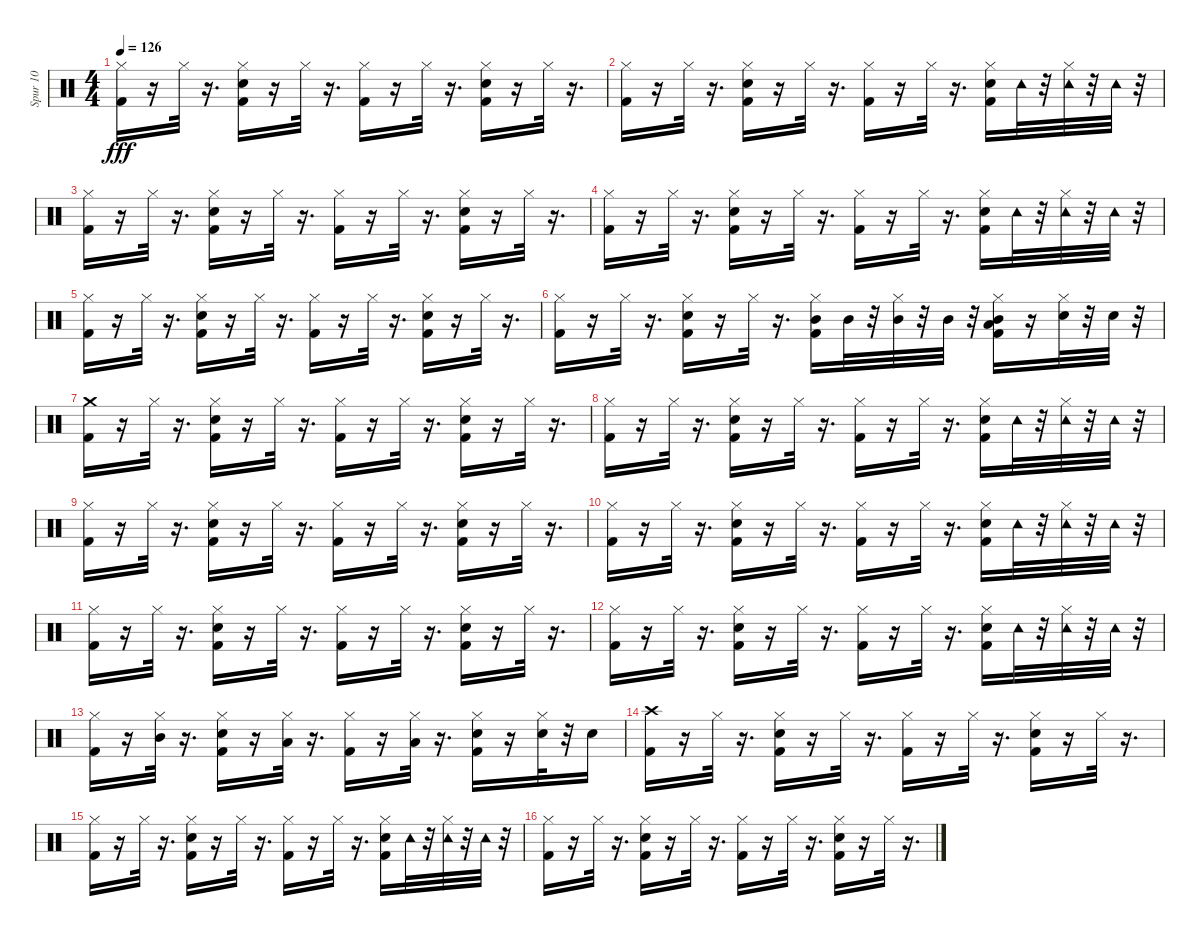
\track ("Spur 10" "Spur 10") {instrument percussion}
\staff {score}
\articulation defaults
\ts (4 4)
\tempo 126
\clef neutral
\ks c
("Hi-Hat (closed)" "Kick (hit) 2").16{dy fff} r.16 "Hi-Hat (closed)".32 r.16{d} ("Hi-Hat (closed)" "Kick (hit) 2" "Snare (hit) 2").16 r.16 "Hi-Hat (closed)".32 r.16{d} ("Hi-Hat (closed)" "Kick (hit) 2").16 r.16 "Hi-Hat (closed)".32 r.16{d} ("Hi-Hat (closed)" "Snare (hit) 2" "Kick (hit) 2").16 r.16 "Hi-Hat (closed)".32 r.16{d} |
("Hi-Hat (closed)" "Kick (hit) 2").16 r.16 "Hi-Hat (closed)".32 r.16{d} ("Hi-Hat (closed)" "Snare (hit) 2" "Kick (hit) 2").16 r.16 "Hi-Hat (closed)".32 r.16{d} ("Hi-Hat (closed)" "Kick (hit) 2").16 r.16 "Hi-Hat (closed)".32 r.16{d} ("Hi-Hat (closed)" "Snare (hit) 2" "Kick (hit) 2").16 "Tambourine (hit)".32 r.32 ("Hi-Hat (closed)" "Tambourine (hit)").32 r.32 "Tambourine (hit)".32 r.32 |
("Hi-Hat (closed)" "Kick (hit) 2").16 r.16 "Hi-Hat (closed)".32 r.16{d} ("Hi-Hat (closed)" "Kick (hit) 2" "Snare (hit) 2").16 r.16 "Hi-Hat (closed)".32 r.16{d} ("Hi-Hat (closed)" "Kick (hit) 2").16 r.16 "Hi-Hat (closed)".32 r.16{d} ("Hi-Hat (closed)" "Snare (hit) 2" "Kick (hit) 2").16 r.16 "Hi-Hat (closed)".32 r.16{d} |
("Hi-Hat (closed)" "Kick (hit) 2").16 r.16 "Hi-Hat (closed)".32 r.16{d} ("Hi-Hat (closed)" "Snare (hit) 2" "Kick (hit) 2").16 r.16 "Hi-Hat (closed)".32 r.16{d} ("Hi-Hat (closed)" "Kick (hit) 2").16 r.16 "Hi-Hat (closed)".32 r.16{d} ("Hi-Hat (closed)" "Snare (hit) 2" "Kick (hit) 2").16 "Tambourine (hit)".32 r.32 ("Hi-Hat (closed)" "Tambourine (hit)").32 r.32 "Tambourine (hit)".32 r.32 |
("Hi-Hat (closed)" "Kick (hit) 2").16 r.16 "Hi-Hat (closed)".32 r.16{d} ("Hi-Hat (closed)" "Kick (hit) 2" "Snare (hit) 2").16 r.16 "Hi-Hat (closed)".32 r.16{d} ("Hi-Hat (closed)" "Kick (hit) 2").16 r.16 "Hi-Hat (closed)".32 r.16{d} ("Hi-Hat (closed)" "Snare (hit) 2" "Kick (hit) 2").16 r.16 "Hi-Hat (closed)".32 r.16{d} |
("Hi-Hat (closed)" "Kick (hit) 2").16 r.16 "Hi-Hat (closed)".32 r.16{d} ("Hi-Hat (closed)" "Snare (hit) 2" "Kick (hit) 2").16 r.16 "Hi-Hat (closed)".32 r.16{d} ("Hi-Hat (closed)" "Mid Tom (hit)" "Kick (hit) 2").16 "Mid Tom (hit)".32 r.32 ("Hi-Hat (closed)" "Mid Tom (hit)").32 r.32 "Mid Tom (hit)".32 r.32 ("Hi-Hat (closed)" "Mid Tom (hit)" "Low Tom (hit)" "Kick (hit) 2").16 r.16 ("Hi-Hat (closed)" "Snare (hit) 2").32 r.32 "Snare (hit) 2".32 r.32 |
("Crash medium (hit)" "Kick (hit) 2").16 r.16 "Hi-Hat (closed)".32 r.16{d} ("Hi-Hat (closed)" "Kick (hit) 2" "Snare (hit) 2").16 r.16 "Hi-Hat (closed)".32 r.16{d} ("Hi-Hat (closed)" "Kick (hit) 2").16 r.16 "Hi-Hat (closed)".32 r.16{d} ("Hi-Hat (closed)" "Snare (hit) 2" "Kick (hit) 2").16 r.16 "Hi-Hat (closed)".32 r.16{d} |
("Hi-Hat (closed)" "Kick (hit) 2").16 r.16 "Hi-Hat (closed)".32 r.16{d} ("Hi-Hat (closed)" "Snare (hit) 2" "Kick (hit) 2").16 r.16 "Hi-Hat (closed)".32 r.16{d} ("Hi-Hat (closed)" "Kick (hit) 2").16 r.16 "Hi-Hat (closed)".32 r.16{d} ("Hi-Hat (closed)" "Snare (hit) 2" "Kick (hit) 2").16 "Tambourine (hit)".32 r.32 ("Hi-Hat (closed)" "Tambourine (hit)").32 r.32 "Tambourine (hit)".32 r.32 |
("Hi-Hat (closed)" "Kick (hit) 2").16 r.16 "Hi-Hat (closed)".32 r.16{d} ("Hi-Hat (closed)" "Kick (hit) 2" "Snare (hit) 2").16 r.16 "Hi-Hat (closed)".32 r.16{d} ("Hi-Hat (closed)" "Kick (hit) 2").16 r.16 "Hi-Hat (closed)".32 r.16{d} ("Hi-Hat (closed)" "Snare (hit) 2" "Kick (hit) 2").16 r.16 "Hi-Hat (closed)".32 r.16{d} |
("Hi-Hat (closed)" "Kick (hit) 2").16 r.16 "Hi-Hat (closed)".32 r.16{d} ("Hi-Hat (closed)" "Snare (hit) 2" "Kick (hit) 2").16 r.16 "Hi-Hat (closed)".32 r.16{d} ("Hi-Hat (closed)" "Kick (hit) 2").16 r.16 "Hi-Hat (closed)".32 r.16{d} ("Hi-Hat (closed)" "Snare (hit) 2" "Kick (hit) 2").16 "Tambourine (hit)".32 r.32 ("Hi-Hat (closed)" "Tambourine (hit)").32 r.32 "Tambourine (hit)".32 r.32 |
("Hi-Hat (closed)" "Kick (hit) 2").16 r.16 "Hi-Hat (closed)".32 r.16{d} ("Hi-Hat (closed)" "Kick (hit) 2" "Snare (hit) 2").16 r.16 "Hi-Hat (closed)".32 r.16{d} ("Hi-Hat (closed)" "Kick (hit) 2").16 r.16 "Hi-Hat (closed)".32 r.16{d} ("Hi-Hat (closed)" "Snare (hit) 2" "Kick (hit) 2").16 r.16 "Hi-Hat (closed)".32 r.16{d} |
("Hi-Hat (closed)" "Kick (hit) 2").16 r.16 "Hi-Hat (closed)".32 r.16{d} ("Hi-Hat (closed)" "Snare (hit) 2" "Kick (hit) 2").16 r.16 "Hi-Hat (closed)".32 r.16{d} ("Hi-Hat (closed)" "Kick (hit) 2").16 r.16 "Hi-Hat (closed)".32 r.16{d} ("Hi-Hat (closed)" "Snare (hit) 2" "Kick (hit) 2").16 "Tambourine (hit)".32 r.32 ("Hi-Hat (closed)" "Tambourine (hit)").32 r.32 "Tambourine (hit)".32 r.32 |
("Hi-Hat (closed)" "Kick (hit) 2").16 r.16 ("Hi-Hat (closed)" "Mid Tom (hit)").32 r.16{d} ("Hi-Hat (closed)" "Snare (hit) 2" "Kick (hit) 2").16 r.16 ("Hi-Hat (closed)" "Low Tom (hit)").32 r.16{d} ("Hi-Hat (closed)" "Kick (hit) 2").16 r.16 ("Hi-Hat (closed)" "Low Tom (hit)").32 r.16{d} ("Hi-Hat (closed)" "Snare (hit) 2" "Kick (hit) 2").16 r.16 ("Hi-Hat (closed)" "Snare (hit) 2").32 r.32 "Snare (hit) 2".16 |
("Crash high (hit)" "Kick (hit) 2").16 r.16 "Hi-Hat (closed)".32 r.16{d} ("Hi-Hat (closed)" "Kick (hit) 2" "Snare (hit) 2").16 r.16 "Hi-Hat (closed)".32 r.16{d} ("Hi-Hat (closed)" "Kick (hit) 2").16 r.16 "Hi-Hat (closed)".32 r.16{d} ("Hi-Hat (closed)" "Snare (hit) 2" "Kick (hit) 2").16 r.16 "Hi-Hat (closed)".32 r.16{d} |
("Hi-Hat (closed)" "Kick (hit) 2").16 r.16 "Hi-Hat (closed)".32 r.16{d} ("Hi-Hat (closed)" "Snare (hit) 2" "Kick (hit) 2").16 r.16 "Hi-Hat (closed)".32 r.16{d} ("Hi-Hat (closed)" "Kick (hit) 2").16 r.16 "Hi-Hat (closed)".32 r.16{d} ("Hi-Hat (closed)" "Snare (hit) 2" "Kick (hit) 2").16 "Tambourine (hit)".32 r.32 ("Hi-Hat (closed)" "Tambourine (hit)").32 r.32 "Tambourine (hit)".32 r.32 |
("Hi-Hat (closed)" "Kick (hit) 2").16 r.16 "Hi-Hat (closed)".32 r.16{d} ("Hi-Hat (closed)" "Kick (hit) 2" "Snare (hit) 2").16 r.16 "Hi-Hat (closed)".32 r.16{d} ("Hi-Hat (closed)" "Kick (hit) 2").16 r.16 "Hi-Hat (closed)".32 r.16{d} ("Hi-Hat (closed)" "Snare (hit) 2" "Kick (hit) 2").16 r.16 "Hi-Hat (closed)".32 r.16{d}
